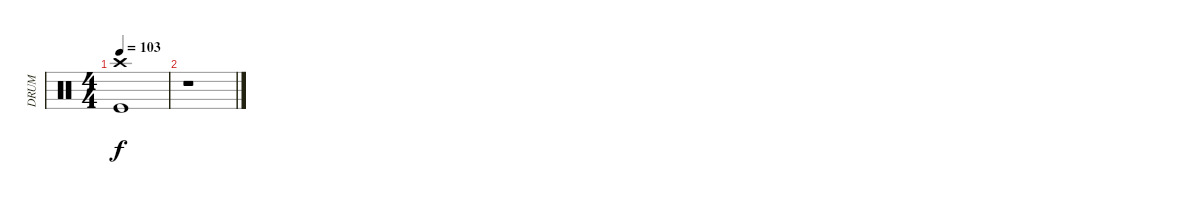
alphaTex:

\track ("DRUM" "DRUM") {instrument percussion}
\staff {score}
\articulation defaults
\ts (4 4)
\tempo 103
\clef neutral
\ks c
("Crash high (hit)" "Kick (hit)").1{dy f} |
r.1
